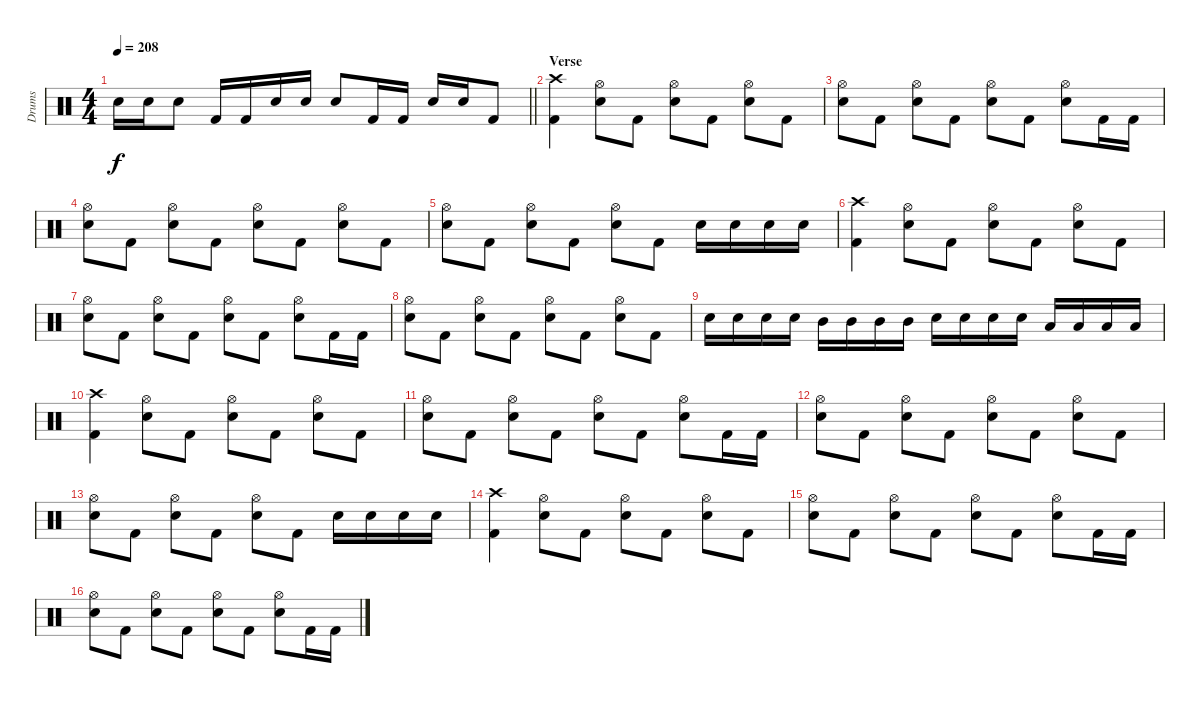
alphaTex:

\track ("Drums" "Drums") {instrument percussion}
\staff {score}
\articulation defaults
\ts (4 4)
\tempo 208
\clef neutral
\barLineRight lightlight
\ks c "Snare (hit) 2".16{dy f} "Snare (hit) 2".16 "Snare (hit) 2".8 "Kick (hit) 2".16 "Kick (hit) 2".16 "Snare (hit) 2".16 "Snare (hit) 2".16 "Snare (hit) 2".8 "Kick (hit) 2".16 "Kick (hit) 2".16 "Snare (hit) 2".16 "Snare (hit) 2".16 "Kick (hit) 2".8
|
\section ("" "Verse")
("Crash high (hit)" "Kick (hit) 2").4 ("Hi-Hat (open)" "Snare (hit) 2").8 "Kick (hit) 2".8 ("Hi-Hat (open)" "Snare (hit) 2").8 "Kick (hit) 2".8 ("Hi-Hat (open)" "Snare (hit) 2").8 "Kick (hit) 2".8 |
("Hi-Hat (open)" "Snare (hit) 2").8 "Kick (hit) 2".8 ("Hi-Hat (open)" "Snare (hit) 2").8 "Kick (hit) 2".8 ("Hi-Hat (open)" "Snare (hit) 2").8 "Kick (hit) 2".8 ("Hi-Hat (open)" "Snare (hit) 2").8 "Kick (hit) 2".16 "Kick (hit) 2".16 |
("Hi-Hat (open)" "Snare (hit) 2").8 "Kick (hit) 2".8 ("Hi-Hat (open)" "Snare (hit) 2").8 "Kick (hit) 2".8 ("Hi-Hat (open)" "Snare (hit) 2").8 "Kick (hit) 2".8 ("Hi-Hat (open)" "Snare (hit) 2").8 "Kick (hit) 2".8 |
("Hi-Hat (open)" "Snare (hit) 2").8 "Kick (hit) 2".8 ("Hi-Hat (open)" "Snare (hit) 2").8 "Kick (hit) 2".8 ("Hi-Hat (open)" "Snare (hit) 2").8 "Kick (hit) 2".8 "Snare (hit) 2".16 "Snare (hit) 2".16 "Snare (hit) 2".16 "Snare (hit) 2".16 |
("Crash high (hit)" "Kick (hit) 2").4 ("Hi-Hat (open)" "Snare (hit) 2").8 "Kick (hit) 2".8 ("Hi-Hat (open)" "Snare (hit) 2").8 "Kick (hit) 2".8 ("Hi-Hat (open)" "Snare (hit) 2").8 "Kick (hit) 2".8 |
("Hi-Hat (open)" "Snare (hit) 2").8 "Kick (hit) 2".8 ("Hi-Hat (open)" "Snare (hit) 2").8 "Kick (hit) 2".8 ("Hi-Hat (open)" "Snare (hit) 2").8 "Kick (hit) 2".8 ("Hi-Hat (open)" "Snare (hit) 2").8 "Kick (hit) 2".16 "Kick (hit) 2".16 |
("Hi-Hat (open)" "Snare (hit) 2").8 "Kick (hit) 2".8 ("Hi-Hat (open)" "Snare (hit) 2").8 "Kick (hit) 2".8 ("Hi-Hat (open)" "Snare (hit) 2").8 "Kick (hit) 2".8 ("Hi-Hat (open)" "Snare (hit) 2").8 "Kick (hit) 2".8 |
"Snare (hit) 2".16 "Snare (hit) 2".16 "Snare (hit) 2".16 "Snare (hit) 2".16 "Mid Tom (hit)".16 "Mid Tom (hit)".16 "Mid Tom (hit)".16 "Mid Tom (hit)".16 "Snare (hit) 2".16 "Snare (hit) 2".16 "Snare (hit) 2".16 "Snare (hit) 2".16 "Low Tom (hit)".16 "Low Tom (hit)".16 "Low Tom (hit)".16 "Low Tom (hit)".16 |
("Crash high (hit)" "Kick (hit) 2").4 ("Hi-Hat (open)" "Snare (hit) 2").8 "Kick (hit) 2".8 ("Hi-Hat (open)" "Snare (hit) 2").8 "Kick (hit) 2".8 ("Hi-Hat (open)" "Snare (hit) 2").8 "Kick (hit) 2".8 |
("Hi-Hat (open)" "Snare (hit) 2").8 "Kick (hit) 2".8 ("Hi-Hat (open)" "Snare (hit) 2").8 "Kick (hit) 2".8 ("Hi-Hat (open)" "Snare (hit) 2").8 "Kick (hit) 2".8 ("Hi-Hat (open)" "Snare (hit) 2").8 "Kick (hit) 2".16 "Kick (hit) 2".16 |
("Hi-Hat (open)" "Snare (hit) 2").8 "Kick (hit) 2".8 ("Hi-Hat (open)" "Snare (hit) 2").8 "Kick (hit) 2".8 ("Hi-Hat (open)" "Snare (hit) 2").8 "Kick (hit) 2".8 ("Hi-Hat (open)" "Snare (hit) 2").8 "Kick (hit) 2".8 |
("Hi-Hat (open)" "Snare (hit) 2").8 "Kick (hit) 2".8 ("Hi-Hat (open)" "Snare (hit) 2").8 "Kick (hit) 2".8 ("Hi-Hat (open)" "Snare (hit) 2").8 "Kick (hit) 2".8 "Snare (hit) 2".16 "Snare (hit) 2".16 "Snare (hit) 2".16 "Snare (hit) 2".16 |
("Crash high (hit)" "Kick (hit) 2").4 ("Hi-Hat (open)" "Snare (hit) 2").8 "Kick (hit) 2".8 ("Hi-Hat (open)" "Snare (hit) 2").8 "Kick (hit) 2".8 ("Hi-Hat (open)" "Snare (hit) 2").8 "Kick (hit) 2".8 |
("Hi-Hat (open)" "Snare (hit) 2").8 "Kick (hit) 2".8 ("Hi-Hat (open)" "Snare (hit) 2").8 "Kick (hit) 2".8 ("Hi-Hat (open)" "Snare (hit) 2").8 "Kick (hit) 2".8 ("Hi-Hat (open)" "Snare (hit) 2").8 "Kick (hit) 2".16 "Kick (hit) 2".16 |
("Hi-Hat (open)" "Snare (hit) 2").8 "Kick (hit) 2".8 ("Hi-Hat (open)" "Snare (hit) 2").8 "Kick (hit) 2".8 ("Hi-Hat (open)" "Snare (hit) 2").8 "Kick (hit) 2".8 ("Hi-Hat (open)" "Snare (hit) 2").8 "Kick (hit) 2".16 "Kick (hit) 2".16
